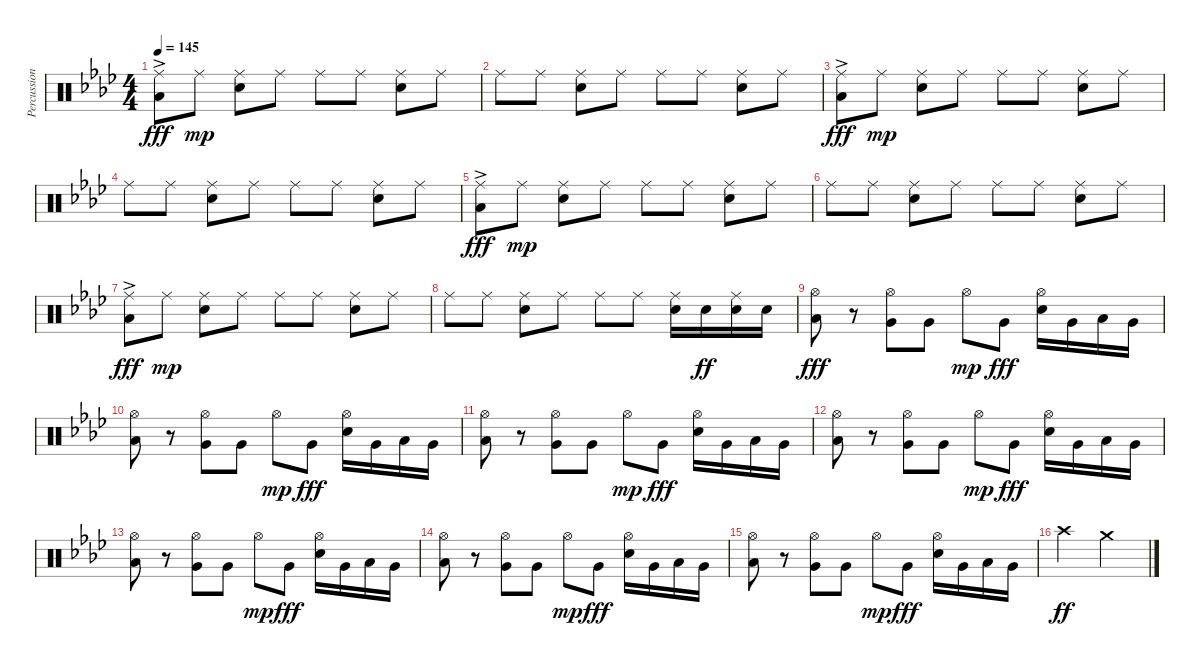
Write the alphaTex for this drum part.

\track ("Percussion" "Percussion") {instrument percussion}
\staff {score}
\articulation defaults
\ts (4 4)
\tempo 145
\clef neutral
\ks ab
("Ride (middle)" "Low Floor Tom (hit)"{ac}).8{dy fff} "Ride (middle)".8{dy mp} ("Snare (hit) 2" "Ride (middle)").8 "Ride (middle)".8 "Ride (middle)".8 "Ride (middle)".8 ("Snare (hit) 2" "Ride (middle)").8 "Ride (middle)".8 |
"Ride (middle)".8 "Ride (middle)".8 ("Snare (hit) 2" "Ride (middle)").8 "Ride (middle)".8 "Ride (middle)".8 "Ride (middle)".8 ("Snare (hit) 2" "Ride (middle)").8 "Ride (middle)".8 |
("Ride (middle)" "Low Floor Tom (hit)"{ac}).8{dy fff} "Ride (middle)".8{dy mp} ("Snare (hit) 2" "Ride (middle)").8 "Ride (middle)".8 "Ride (middle)".8 "Ride (middle)".8 ("Snare (hit) 2" "Ride (middle)").8 "Ride (middle)".8 |
"Ride (middle)".8 "Ride (middle)".8 ("Snare (hit) 2" "Ride (middle)").8 "Ride (middle)".8 "Ride (middle)".8 "Ride (middle)".8 ("Snare (hit) 2" "Ride (middle)").8 "Ride (middle)".8 |
("Ride (middle)" "Low Floor Tom (hit)"{ac}).8{dy fff} "Ride (middle)".8{dy mp} ("Snare (hit) 2" "Ride (middle)").8 "Ride (middle)".8 "Ride (middle)".8 "Ride (middle)".8 ("Snare (hit) 2" "Ride (middle)").8 "Ride (middle)".8 |
"Ride (middle)".8 "Ride (middle)".8 ("Snare (hit) 2" "Ride (middle)").8 "Ride (middle)".8 "Ride (middle)".8 "Ride (middle)".8 ("Snare (hit) 2" "Ride (middle)").8 "Ride (middle)".8 |
("Ride (middle)" "Low Floor Tom (hit)"{ac}).8{dy fff} "Ride (middle)".8{dy mp} ("Snare (hit) 2" "Ride (middle)").8 "Ride (middle)".8 "Ride (middle)".8 "Ride (middle)".8 ("Snare (hit) 2" "Ride (middle)").8 "Ride (middle)".8 |
"Ride (middle)".8 "Ride (middle)".8 ("Snare (hit) 2" "Ride (middle)").8 "Ride (middle)".8 "Ride (middle)".8 "Ride (middle)".8 ("Snare (hit) 2" "Ride (middle)").16 "Electric Snare (hit)".16{dy ff} ("Snare (hit) 2" "Ride (middle)").16 "Electric Snare (hit)".16 |
("Hi-Hat (open)" "Low Floor Tom (hit)").8{dy fff} r.8 ("Hi-Hat (open)" "Very Low Tom (hit)").8 "Very Low Tom (hit)".8 "Hi-Hat (open)".8{dy mp} "Very Low Tom (hit)".8{dy fff} ("Hi-Hat (open)" "Snare (hit) 2").16 "Very Low Tom (hit)".16 "Low Floor Tom (hit)".16 "Very Low Tom (hit)".16 |
("Hi-Hat (open)" "Low Floor Tom (hit)").8 r.8 ("Hi-Hat (open)" "Very Low Tom (hit)").8 "Very Low Tom (hit)".8 "Hi-Hat (open)".8{dy mp} "Very Low Tom (hit)".8{dy fff} ("Hi-Hat (open)" "Snare (hit) 2").16 "Very Low Tom (hit)".16 "Low Floor Tom (hit)".16 "Very Low Tom (hit)".16 |
("Hi-Hat (open)" "Low Floor Tom (hit)").8 r.8 ("Hi-Hat (open)" "Very Low Tom (hit)").8 "Very Low Tom (hit)".8 "Hi-Hat (open)".8{dy mp} "Very Low Tom (hit)".8{dy fff} ("Hi-Hat (open)" "Snare (hit) 2").16 "Very Low Tom (hit)".16 "Low Floor Tom (hit)".16 "Very Low Tom (hit)".16 |
("Hi-Hat (open)" "Low Floor Tom (hit)").8 r.8 ("Hi-Hat (open)" "Very Low Tom (hit)").8 "Very Low Tom (hit)".8 "Hi-Hat (open)".8{dy mp} "Very Low Tom (hit)".8{dy fff} ("Hi-Hat (open)" "Snare (hit) 2").16 "Very Low Tom (hit)".16 "Low Floor Tom (hit)".16 "Very Low Tom (hit)".16 |
("Hi-Hat (open)" "Low Floor Tom (hit)").8 r.8 ("Hi-Hat (open)" "Very Low Tom (hit)").8 "Very Low Tom (hit)".8 "Hi-Hat (open)".8{dy mp} "Very Low Tom (hit)".8{dy fff} ("Hi-Hat (open)" "Snare (hit) 2").16 "Very Low Tom (hit)".16 "Low Floor Tom (hit)".16 "Very Low Tom (hit)".16 |
("Hi-Hat (open)" "Low Floor Tom (hit)").8 r.8 ("Hi-Hat (open)" "Very Low Tom (hit)").8 "Very Low Tom (hit)".8 "Hi-Hat (open)".8{dy mp} "Very Low Tom (hit)".8{dy fff} ("Hi-Hat (open)" "Snare (hit) 2").16 "Very Low Tom (hit)".16 "Low Floor Tom (hit)".16 "Very Low Tom (hit)".16 |
("Hi-Hat (open)" "Low Floor Tom (hit)").8 r.8 ("Hi-Hat (open)" "Very Low Tom (hit)").8 "Very Low Tom (hit)".8 "Hi-Hat (open)".8{dy mp} "Very Low Tom (hit)".8{dy fff} ("Hi-Hat (open)" "Snare (hit) 2").16 "Very Low Tom (hit)".16 "Low Floor Tom (hit)".16 "Very Low Tom (hit)".16 |
"Crash high (hit)".2{dy ff} "Crash medium (hit)".2
